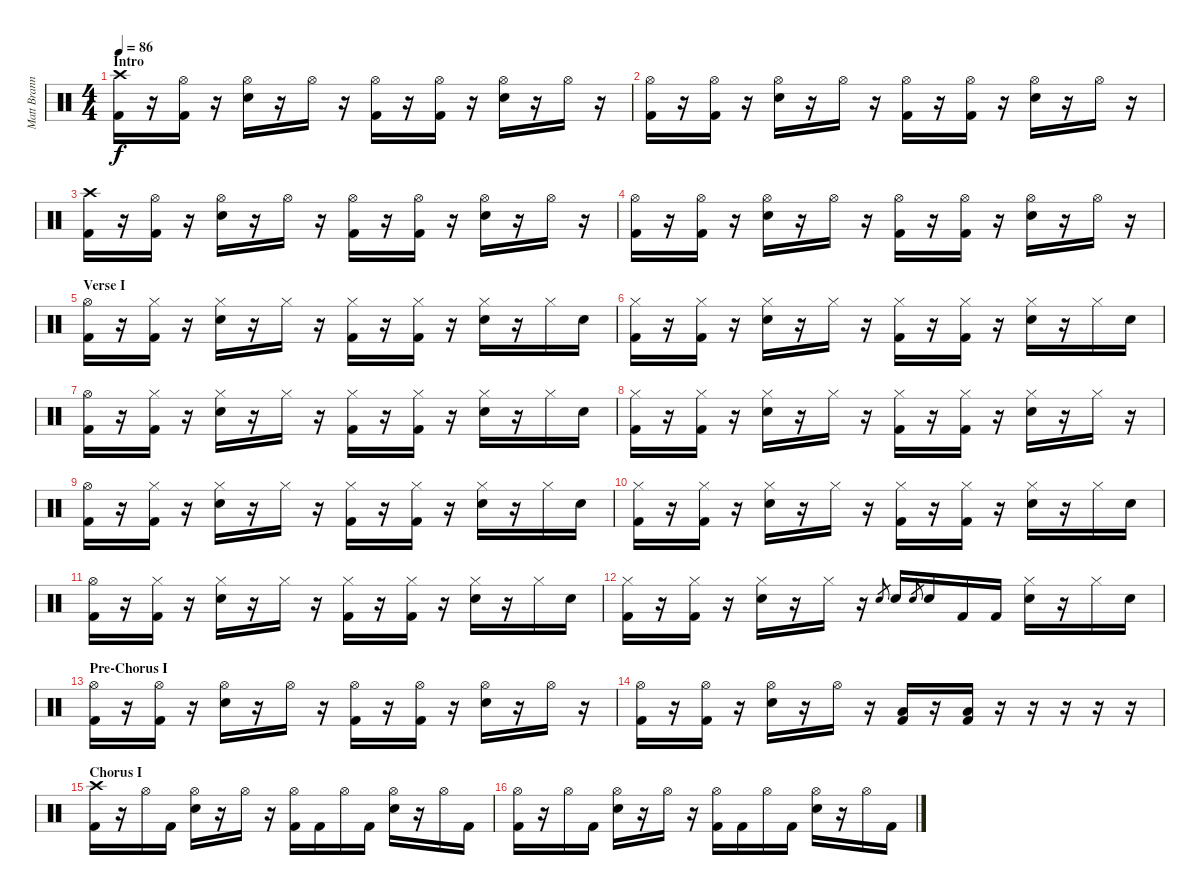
\track ("Matt Brann - Drums" "Matt Brann") {instrument percussion}
\staff {score}
\articulation defaults
\ts (4 4)
\section ("" "Intro")
\tempo 86
\clef neutral
\ks c
("Crash high (hit)" "Kick (hit) 2").16{dy f} r.16 ("Hi-Hat (open)" "Kick (hit) 2").16 r.16 ("Hi-Hat (open)" "Electric Snare (hit)").16 r.16 "Hi-Hat (open)".16 r.16 ("Hi-Hat (open)" "Kick (hit) 2").16 r.16 ("Hi-Hat (open)" "Kick (hit) 2").16 r.16 ("Hi-Hat (open)" "Electric Snare (hit)").16 r.16 "Hi-Hat (open)".16 r.16 |
("Hi-Hat (open)" "Kick (hit) 2").16 r.16 ("Hi-Hat (open)" "Kick (hit) 2").16 r.16 ("Hi-Hat (open)" "Electric Snare (hit)").16 r.16 "Hi-Hat (open)".16 r.16 ("Hi-Hat (open)" "Kick (hit) 2").16 r.16 ("Hi-Hat (open)" "Kick (hit) 2").16 r.16 ("Hi-Hat (open)" "Electric Snare (hit)").16 r.16 "Hi-Hat (open)".16 r.16 |
("Crash high (hit)" "Kick (hit) 2").16 r.16 ("Hi-Hat (open)" "Kick (hit) 2").16 r.16 ("Hi-Hat (open)" "Electric Snare (hit)").16 r.16 "Hi-Hat (open)".16 r.16 ("Hi-Hat (open)" "Kick (hit) 2").16 r.16 ("Hi-Hat (open)" "Kick (hit) 2").16 r.16 ("Hi-Hat (open)" "Electric Snare (hit)").16 r.16 "Hi-Hat (open)".16 r.16 |
("Hi-Hat (open)" "Kick (hit) 2").16 r.16 ("Hi-Hat (open)" "Kick (hit) 2").16 r.16 ("Hi-Hat (open)" "Electric Snare (hit)").16 r.16 "Hi-Hat (open)".16 r.16 ("Hi-Hat (open)" "Kick (hit) 2").16 r.16 ("Hi-Hat (open)" "Kick (hit) 2").16 r.16 ("Hi-Hat (open)" "Electric Snare (hit)").16 r.16 "Hi-Hat (open)".16 r.16 |
\section ("" "Verse I")
("Hi-Hat (open)" "Kick (hit) 2").16 r.16 ("Hi-Hat (closed)" "Kick (hit) 2").16 r.16 ("Hi-Hat (closed)" "Electric Snare (hit)").16 r.16 "Hi-Hat (closed)".16 r.16 ("Hi-Hat (closed)" "Kick (hit) 2").16 r.16 ("Hi-Hat (closed)" "Kick (hit) 2").16 r.16 ("Hi-Hat (closed)" "Electric Snare (hit)").16 r.16 "Hi-Hat (closed)".16 "Electric Snare (hit)".16 |
("Hi-Hat (closed)" "Kick (hit) 2").16 r.16 ("Hi-Hat (closed)" "Kick (hit) 2").16 r.16 ("Hi-Hat (closed)" "Electric Snare (hit)").16 r.16 "Hi-Hat (closed)".16 r.16 ("Hi-Hat (closed)" "Kick (hit) 2").16 r.16 ("Hi-Hat (closed)" "Kick (hit) 2").16 r.16 ("Hi-Hat (closed)" "Electric Snare (hit)").16 r.16 "Hi-Hat (closed)".16 "Electric Snare (hit)".16 |
("Hi-Hat (open)" "Kick (hit) 2").16 r.16 ("Hi-Hat (closed)" "Kick (hit) 2").16 r.16 ("Hi-Hat (closed)" "Electric Snare (hit)").16 r.16 "Hi-Hat (closed)".16 r.16 ("Hi-Hat (closed)" "Kick (hit) 2").16 r.16 ("Hi-Hat (closed)" "Kick (hit) 2").16 r.16 ("Hi-Hat (closed)" "Electric Snare (hit)").16 r.16 "Hi-Hat (closed)".16 "Electric Snare (hit)".16 |
("Hi-Hat (closed)" "Kick (hit) 2").16 r.16 ("Hi-Hat (closed)" "Kick (hit) 2").16 r.16 ("Hi-Hat (closed)" "Electric Snare (hit)").16 r.16 "Hi-Hat (closed)".16 r.16 ("Hi-Hat (closed)" "Kick (hit) 2").16 r.16 ("Hi-Hat (closed)" "Kick (hit) 2").16 r.16 ("Hi-Hat (closed)" "Electric Snare (hit)").16 r.16 "Hi-Hat (closed)".16 r.16 |
("Hi-Hat (open)" "Kick (hit) 2").16 r.16 ("Hi-Hat (closed)" "Kick (hit) 2").16 r.16 ("Hi-Hat (closed)" "Electric Snare (hit)").16 r.16 "Hi-Hat (closed)".16 r.16 ("Hi-Hat (closed)" "Kick (hit) 2").16 r.16 ("Hi-Hat (closed)" "Kick (hit) 2").16 r.16 ("Hi-Hat (closed)" "Electric Snare (hit)").16 r.16 "Hi-Hat (closed)".16 "Electric Snare (hit)".16 |
("Hi-Hat (closed)" "Kick (hit) 2").16 r.16 ("Hi-Hat (closed)" "Kick (hit) 2").16 r.16 ("Hi-Hat (closed)" "Electric Snare (hit)").16 r.16 "Hi-Hat (closed)".16 r.16 ("Hi-Hat (closed)" "Kick (hit) 2").16 r.16 ("Hi-Hat (closed)" "Kick (hit) 2").16 r.16 ("Hi-Hat (closed)" "Electric Snare (hit)").16 r.16 "Hi-Hat (closed)".16 "Electric Snare (hit)".16 |
("Hi-Hat (open)" "Kick (hit) 2").16 r.16 ("Hi-Hat (closed)" "Kick (hit) 2").16 r.16 ("Hi-Hat (closed)" "Electric Snare (hit)").16 r.16 "Hi-Hat (closed)".16 r.16 ("Hi-Hat (closed)" "Kick (hit) 2").16 r.16 ("Hi-Hat (closed)" "Kick (hit) 2").16 r.16 ("Hi-Hat (closed)" "Electric Snare (hit)").16 r.16 "Hi-Hat (closed)".16 "Electric Snare (hit)".16 |
("Hi-Hat (closed)" "Kick (hit) 2").16 r.16 ("Hi-Hat (closed)" "Kick (hit) 2").16 r.16 ("Hi-Hat (closed)" "Electric Snare (hit)").16 r.16 "Hi-Hat (closed)".16 r.16 "Electric Snare (hit)".8{gr} "Electric Snare (hit)".16 "Electric Snare (hit)".8{gr} "Electric Snare (hit)".16 "Kick (hit) 2".16 "Kick (hit) 2".16 ("Hi-Hat (closed)" "Electric Snare (hit)").16 r.16 "Hi-Hat (closed)".16 "Electric Snare (hit)".16 |
\section ("" "Pre-Chorus I")
("Hi-Hat (open)" "Kick (hit) 2").16 r.16 ("Hi-Hat (open)" "Kick (hit) 2").16 r.16 ("Hi-Hat (open)" "Electric Snare (hit)").16 r.16 "Hi-Hat (open)".16 r.16 ("Hi-Hat (open)" "Kick (hit) 2").16 r.16 ("Hi-Hat (open)" "Kick (hit) 2").16 r.16 ("Hi-Hat (open)" "Electric Snare (hit)").16 r.16 "Hi-Hat (open)".16 r.16 |
("Hi-Hat (open)" "Kick (hit) 2").16 r.16 ("Hi-Hat (open)" "Kick (hit) 2").16 r.16 ("Hi-Hat (open)" "Electric Snare (hit)").16 r.16 "Hi-Hat (open)".16 r.16 ("Low Floor Tom (hit)" "Kick (hit) 2").16 r.16 ("Low Floor Tom (hit)" "Kick (hit) 2").16 r.16 r.16 r.16 r.16 r.16 |
\section ("" "Chorus I")
("Crash high (hit)" "Kick (hit) 2").16 r.16 "Hi-Hat (open)".16 "Kick (hit) 2".16 ("Hi-Hat (open)" "Electric Snare (hit)").16 r.16 "Hi-Hat (open)".16 r.16 ("Hi-Hat (open)" "Kick (hit) 2").16 "Kick (hit) 2".16 "Hi-Hat (open)".16 "Kick (hit) 2".16 ("Hi-Hat (open)" "Electric Snare (hit)").16 r.16 "Hi-Hat (open)".16 "Kick (hit) 2".16 |
("Hi-Hat (open)" "Kick (hit) 2").16 r.16 "Hi-Hat (open)".16 "Kick (hit) 2".16 ("Hi-Hat (open)" "Electric Snare (hit)").16 r.16 "Hi-Hat (open)".16 r.16 ("Hi-Hat (open)" "Kick (hit) 2").16 "Kick (hit) 2".16 "Hi-Hat (open)".16 "Kick (hit) 2".16 ("Hi-Hat (open)" "Electric Snare (hit)").16 r.16 "Hi-Hat (open)".16 "Kick (hit) 2".16
